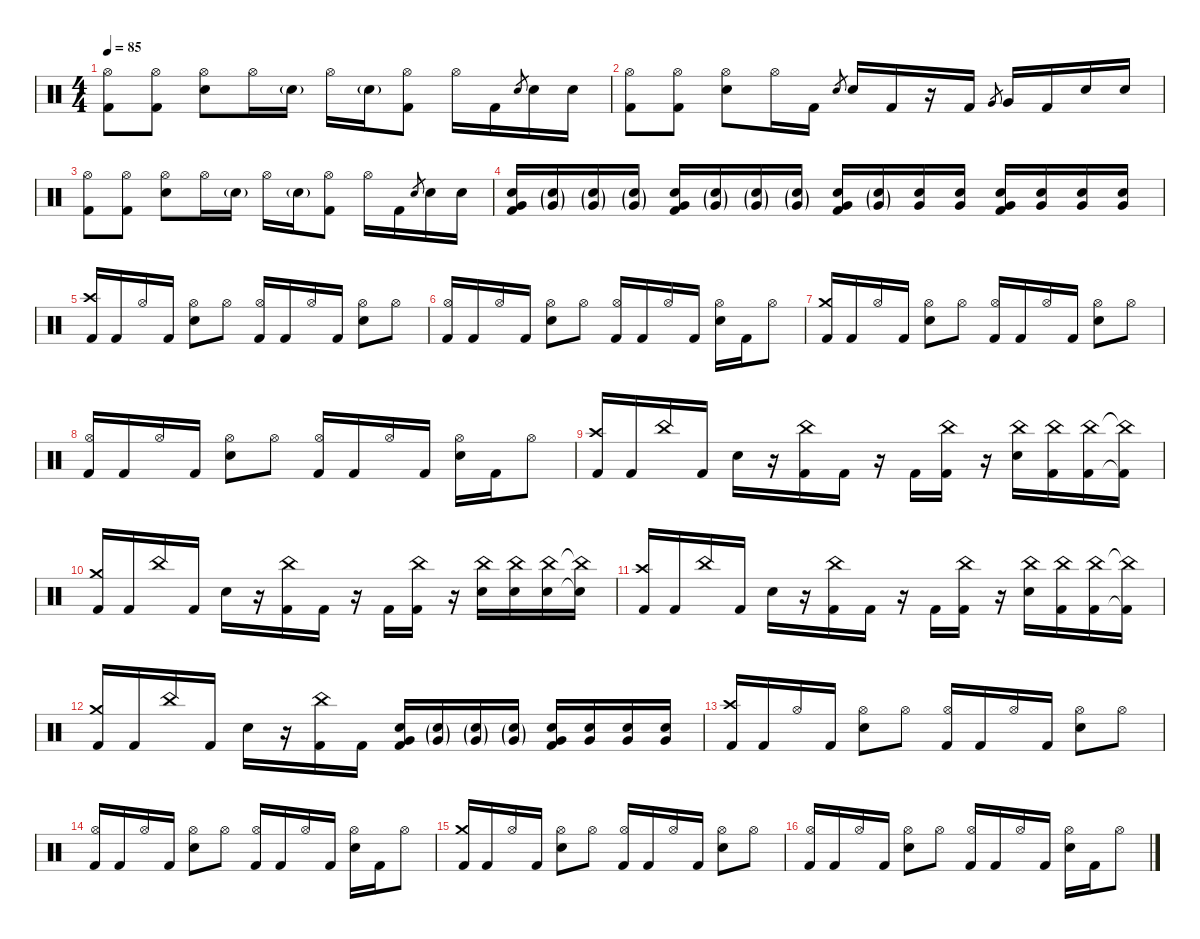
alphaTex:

\defaultSystemsLayout 4
\hideDynamics
\bracketExtendMode nobrackets
\singleTrackTrackNamePolicy hidden
\multiTrackTrackNamePolicy hidden
\firstSystemTrackNameMode fullname
\firstSystemTrackNameOrientation horizontal
\otherSystemsTrackNameOrientation horizontal
\track ("Drums" "drm.") {instrument percussion}
\staff {score}
\articulation defaults
\ts (4 4)
\beaming (8 2 2 2 2)
\tempo 85
\clef neutral
\ks c
("Hi-Hat (open)" "Kick (hit) 2").8{dy mp beam Down} ("Hi-Hat (open)" "Kick (hit) 2").8{beam Down} ("Hi-Hat (open)" "Snare (hit) 2").8{beam Down} "Hi-Hat (open)".16{beam Down} "Snare (hit) 2"{g}.16{dy mf beam Down} "Hi-Hat (open)".16{dy mp beam Down} "Snare (hit) 2"{g}.16{dy mf beam Down} ("Hi-Hat (open)" "Kick (hit) 2").8{dy mp beam Down} "Hi-Hat (open)".16{beam Down} "Kick (hit) 2".16{dy f beam Down} "Electric Snare (hit)".8{gr dy mf beam Up} "Snare (hit) 2".16{dy f beam Down} "Snare (hit) 2".16{beam Down} |
("Hi-Hat (open)" "Kick (hit) 2").8{dy mp beam Down} ("Hi-Hat (open)" "Kick (hit) 2").8{beam Down} ("Hi-Hat (open)" "Snare (hit) 2").8{beam Down} "Hi-Hat (open)".16{beam Down} "Kick (hit) 2".16{dy f beam Down} "Electric Snare (hit)".8{gr dy mf beam Up} "Snare (hit) 2".16{dy f beam Up} "Kick (hit) 2".16{beam Up} r.16{beam Up} "Kick (hit) 2".16{beam Up} "Very Low Tom (hit)".8{gr dy mf beam Up} "Very Low Tom (hit)".16{dy f beam Up} "Kick (hit) 2".16{beam Up} "Snare (hit) 2".16{beam Up} "Snare (hit) 2".16{beam Up} |
("Hi-Hat (open)" "Kick (hit) 2").8{dy mp beam Down} ("Hi-Hat (open)" "Kick (hit) 2").8{beam Down} ("Hi-Hat (open)" "Snare (hit) 2").8{beam Down} "Hi-Hat (open)".16{beam Down} "Snare (hit) 2"{g}.16{dy mf beam Down} "Hi-Hat (open)".16{dy mp beam Down} "Snare (hit) 2"{g}.16{dy mf beam Down} ("Hi-Hat (open)" "Kick (hit) 2").8{dy mp beam Down} "Hi-Hat (open)".16{beam Down} "Kick (hit) 2".16{dy f beam Down} "Electric Snare (hit)".8{gr dy mf beam Up} "Snare (hit) 2".16{dy f beam Down} "Snare (hit) 2".16{beam Down} |
("Snare (hit) 2" "Very Low Tom (hit)" "Kick (hit) 2").16{beam Up} ("Snare (hit) 2"{g} "Very Low Tom (hit)"{g}).16{dy mf beam Up} ("Snare (hit) 2"{g} "Very Low Tom (hit)"{g}).16{beam Up} ("Snare (hit) 2"{g} "Very Low Tom (hit)"{g}).16{beam Up} ("Snare (hit) 2" "Very Low Tom (hit)" "Kick (hit) 2").16{dy f beam Up} ("Snare (hit) 2"{g} "Very Low Tom (hit)"{g}).16{dy mf beam Up} ("Snare (hit) 2"{g} "Very Low Tom (hit)"{g}).16{beam Up} ("Snare (hit) 2"{g} "Very Low Tom (hit)"{g}).16{beam Up} ("Snare (hit) 2" "Very Low Tom (hit)" "Kick (hit) 2").16{dy f beam Up} ("Snare (hit) 2"{g} "Very Low Tom (hit)"{g}).16{dy mf beam Up} ("Snare (hit) 2" "Very Low Tom (hit)").16{dy f beam Up} ("Snare (hit) 2" "Very Low Tom (hit)").16{beam Up} ("Snare (hit) 2" "Very Low Tom (hit)" "Kick (hit) 2").16{dy ff beam Up} ("Snare (hit) 2" "Very Low Tom (hit)").16{beam Up} ("Snare (hit) 2" "Very Low Tom (hit)").16{dy fff beam Up} ("Snare (hit) 2" "Very Low Tom (hit)").16{beam Up} |
("Crash high (hit)" "Kick (hit) 2").16{dy f beam Up} "Kick (hit) 2".16{beam Up} "Hi-Hat (open)".16{dy mp beam Up} "Kick (hit) 2".16{dy f beam Up} ("Hi-Hat (open)" "Snare (hit) 2").8{dy mp beam Down} "Hi-Hat (open)".8{beam Down} ("Hi-Hat (open)" "Kick (hit) 2").16{beam Up} "Kick (hit) 2".16{dy f beam Up} "Hi-Hat (open)".16{dy mp beam Up} "Kick (hit) 2".16{dy f beam Up} ("Hi-Hat (open)" "Snare (hit) 2").8{dy mp beam Down} "Hi-Hat (open)".8{beam Down} |
("Hi-Hat (open)" "Kick (hit) 2").16{beam Up} "Kick (hit) 2".16{dy f beam Up} "Hi-Hat (open)".16{dy mp beam Up} "Kick (hit) 2".16{dy f beam Up} ("Hi-Hat (open)" "Snare (hit) 2").8{dy mp beam Down} "Hi-Hat (open)".8{beam Down} ("Hi-Hat (open)" "Kick (hit) 2").16{beam Up} "Kick (hit) 2".16{dy f beam Up} "Hi-Hat (open)".16{dy mp beam Up} "Kick (hit) 2".16{dy f beam Up} ("Hi-Hat (open)" "Snare (hit) 2").16{dy mp beam Down} "Kick (hit) 2".16{dy f beam Down} "Hi-Hat (open)".8{dy mp beam Down} |
("Crash medium (hit)" "Kick (hit) 2").16{dy f beam Up} "Kick (hit) 2".16{beam Up} "Hi-Hat (open)".16{dy mp beam Up} "Kick (hit) 2".16{dy f beam Up} ("Hi-Hat (open)" "Snare (hit) 2").8{dy mp beam Down} "Hi-Hat (open)".8{beam Down} ("Hi-Hat (open)" "Kick (hit) 2").16{beam Up} "Kick (hit) 2".16{dy f beam Up} "Hi-Hat (open)".16{dy mp beam Up} "Kick (hit) 2".16{dy f beam Up} ("Hi-Hat (open)" "Snare (hit) 2").8{dy mp beam Down} "Hi-Hat (open)".8{beam Down} |
("Hi-Hat (open)" "Kick (hit) 2").16{beam Up} "Kick (hit) 2".16{dy f beam Up} "Hi-Hat (open)".16{dy mp beam Up} "Kick (hit) 2".16{dy f beam Up} ("Hi-Hat (open)" "Snare (hit) 2").8{dy mp beam Down} "Hi-Hat (open)".8{beam Down} ("Hi-Hat (open)" "Kick (hit) 2").16{beam Up} "Kick (hit) 2".16{dy f beam Up} "Hi-Hat (open)".16{dy mp beam Up} "Kick (hit) 2".16{dy f beam Up} ("Hi-Hat (open)" "Snare (hit) 2").16{dy mp beam Down} "Kick (hit) 2".16{dy f beam Down} "Hi-Hat (open)".8{dy mp beam Down} |
("Crash high (hit)" "Kick (hit) 2").16{dy f beam Up} "Kick (hit) 2".16{beam Up} "China (hit)".16{dy mf beam Up} "Kick (hit) 2".16{dy f beam Up} "Snare (hit) 2".16{beam Down} r.16{beam Down} ("China (hit)" "Kick (hit) 2").16{dy mf beam Down} "Kick (hit) 2".16{dy f beam Down} r.16{beam Down} "Kick (hit) 2".16{beam Down} ("China (hit)" "Kick (hit) 2").16{dy mf beam Down} r.16{beam Down} ("China (hit)" "Snare (hit) 2").16{beam Down} ("China (hit)" "Kick (hit) 2").16{beam Down} ("China (hit)" "Kick (hit) 2").16{beam Down} ("China (hit)"{t} "Kick (hit) 2"{t}).16{dy f beam Down} |
("Crash medium (hit)" "Kick (hit) 2").16{beam Up} "Kick (hit) 2".16{beam Up} "China (hit)".16{dy mf beam Up} "Kick (hit) 2".16{dy f beam Up} "Snare (hit) 2".16{beam Down} r.16{beam Down} ("China (hit)" "Kick (hit) 2").16{dy mf beam Down} "Kick (hit) 2".16{dy f beam Down} r.16{beam Down} "Kick (hit) 2".16{beam Down} ("China (hit)" "Kick (hit) 2").16{dy mf beam Down} r.16{beam Down} ("China (hit)" "Snare (hit) 2").16{beam Down} ("China (hit)" "Snare (hit) 2").16{beam Down} ("China (hit)" "Snare (hit) 2").16{beam Down} ("China (hit)"{t} "Snare (hit) 2"{t}).16{dy f beam Down} |
("Crash high (hit)" "Kick (hit) 2").16{beam Up} "Kick (hit) 2".16{beam Up} "China (hit)".16{dy mf beam Up} "Kick (hit) 2".16{dy f beam Up} "Snare (hit) 2".16{beam Down} r.16{beam Down} ("China (hit)" "Kick (hit) 2").16{dy mf beam Down} "Kick (hit) 2".16{dy f beam Down} r.16{beam Down} "Kick (hit) 2".16{beam Down} ("China (hit)" "Kick (hit) 2").16{dy mf beam Down} r.16{beam Down} ("China (hit)" "Snare (hit) 2").16{beam Down} ("China (hit)" "Kick (hit) 2").16{beam Down} ("China (hit)" "Kick (hit) 2").16{beam Down} ("China (hit)"{t} "Kick (hit) 2"{t}).16{dy f beam Down} |
("Crash medium (hit)" "Kick (hit) 2").16{beam Up} "Kick (hit) 2".16{beam Up} "China (hit)".16{dy mf beam Up} "Kick (hit) 2".16{dy f beam Up} "Snare (hit) 2".16{beam Down} r.16{beam Down} ("China (hit)" "Kick (hit) 2").16{dy mf beam Down} "Kick (hit) 2".16{dy f beam Down} ("Snare (hit) 2" "Very Low Tom (hit)" "Kick (hit) 2").16{beam Up} ("Snare (hit) 2"{g} "Very Low Tom (hit)"{g}).16{dy mf beam Up} ("Snare (hit) 2"{g} "Very Low Tom (hit)"{g}).16{beam Up} ("Snare (hit) 2"{g} "Very Low Tom (hit)"{g}).16{beam Up} ("Snare (hit) 2" "Very Low Tom (hit)" "Kick (hit) 2").16{dy ff beam Up} ("Snare (hit) 2" "Very Low Tom (hit)").16{beam Up} ("Snare (hit) 2" "Very Low Tom (hit)").16{dy fff beam Up} ("Snare (hit) 2" "Very Low Tom (hit)").16{beam Up} |
("Crash high (hit)" "Kick (hit) 2").16{dy f beam Up} "Kick (hit) 2".16{beam Up} "Hi-Hat (open)".16{dy mp beam Up} "Kick (hit) 2".16{dy f beam Up} ("Hi-Hat (open)" "Snare (hit) 2").8{dy mp beam Down} "Hi-Hat (open)".8{beam Down} ("Hi-Hat (open)" "Kick (hit) 2").16{beam Up} "Kick (hit) 2".16{dy f beam Up} "Hi-Hat (open)".16{dy mp beam Up} "Kick (hit) 2".16{dy f beam Up} ("Hi-Hat (open)" "Snare (hit) 2").8{dy mp beam Down} "Hi-Hat (open)".8{beam Down} |
("Hi-Hat (open)" "Kick (hit) 2").16{beam Up} "Kick (hit) 2".16{dy f beam Up} "Hi-Hat (open)".16{dy mp beam Up} "Kick (hit) 2".16{dy f beam Up} ("Hi-Hat (open)" "Snare (hit) 2").8{dy mp beam Down} "Hi-Hat (open)".8{beam Down} ("Hi-Hat (open)" "Kick (hit) 2").16{beam Up} "Kick (hit) 2".16{dy f beam Up} "Hi-Hat (open)".16{dy mp beam Up} "Kick (hit) 2".16{dy f beam Up} ("Hi-Hat (open)" "Snare (hit) 2").16{dy mp beam Down} "Kick (hit) 2".16{dy f beam Down} "Hi-Hat (open)".8{dy mp beam Down} |
("Crash medium (hit)" "Kick (hit) 2").16{dy f beam Up} "Kick (hit) 2".16{beam Up} "Hi-Hat (open)".16{dy mp beam Up} "Kick (hit) 2".16{dy f beam Up} ("Hi-Hat (open)" "Snare (hit) 2").8{dy mp beam Down} "Hi-Hat (open)".8{beam Down} ("Hi-Hat (open)" "Kick (hit) 2").16{beam Up} "Kick (hit) 2".16{dy f beam Up} "Hi-Hat (open)".16{dy mp beam Up} "Kick (hit) 2".16{dy f beam Up} ("Hi-Hat (open)" "Snare (hit) 2").8{dy mp beam Down} "Hi-Hat (open)".8{beam Down} |
("Hi-Hat (open)" "Kick (hit) 2").16{beam Up} "Kick (hit) 2".16{dy f beam Up} "Hi-Hat (open)".16{dy mp beam Up} "Kick (hit) 2".16{dy f beam Up} ("Hi-Hat (open)" "Snare (hit) 2").8{dy mp beam Down} "Hi-Hat (open)".8{beam Down} ("Hi-Hat (open)" "Kick (hit) 2").16{beam Up} "Kick (hit) 2".16{dy f beam Up} "Hi-Hat (open)".16{dy mp beam Up} "Kick (hit) 2".16{dy f beam Up} ("Hi-Hat (open)" "Snare (hit) 2").16{dy mp beam Down} "Kick (hit) 2".16{dy f beam Down} "Hi-Hat (open)".8{dy mp beam Down}
